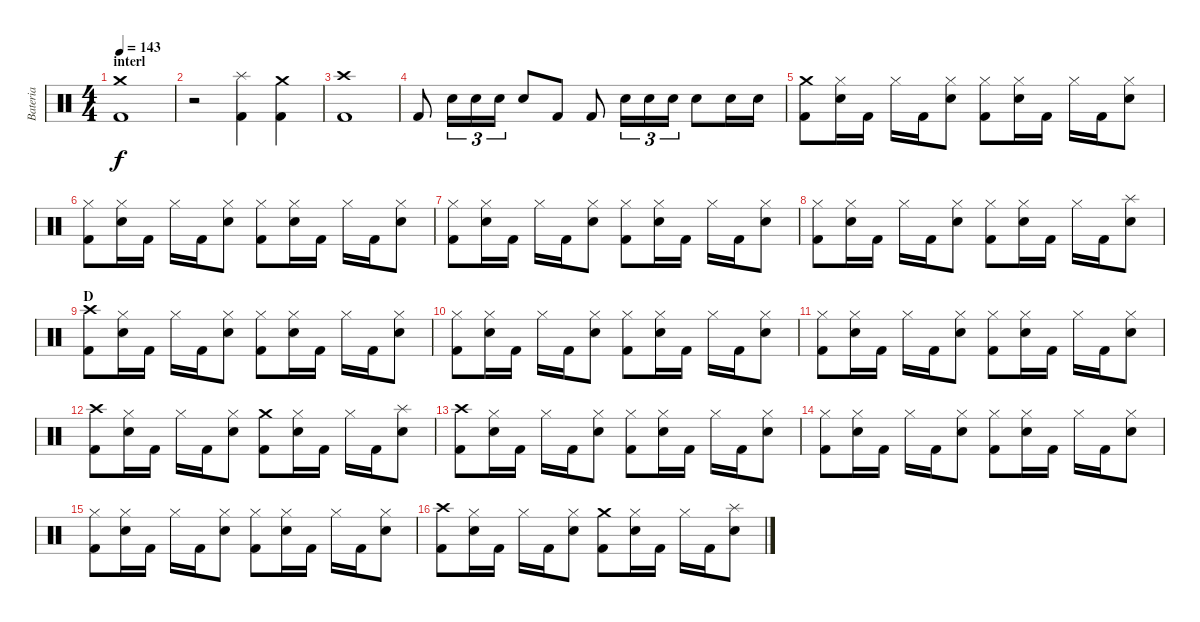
\track ("Bateria" "Bateria") {instrument percussion}
\staff {score}
\articulation defaults
\ts (4 4)
\section ("" "interl")
\tempo 143
\clef neutral
\ks c
("Crash medium (hit)" "Kick (hit) 2").1{dy f} |
r.2 ("Splash (hit)" "Kick (hit) 2").4 ("Crash medium (hit)" "Kick (hit) 2").4 |
("Crash high (hit)" "Kick (hit) 2").1 |
"Kick (hit) 2".8 "Snare (hit) 2".16{tu (3 2)} "Snare (hit) 2".16{tu (3 2)} "Snare (hit) 2".16{tu (3 2)} "Snare (hit) 2".8 "Kick (hit) 2".8 "Kick (hit) 2".8 "Snare (hit) 2".16{tu (3 2)} "Snare (hit) 2".16{tu (3 2)} "Snare (hit) 2".16{tu (3 2)} "Snare (hit) 2".8 "Snare (hit) 2".16 "Snare (hit) 2".16 |
("Crash medium (hit)" "Kick (hit) 2").8 ("Hi-Hat (closed)" "Snare (hit) 2").16 "Kick (hit) 2".16 "Hi-Hat (closed)".16 "Kick (hit) 2".16 ("Hi-Hat (closed)" "Snare (hit) 2").8 ("Hi-Hat (closed)" "Kick (hit) 2").8 ("Hi-Hat (closed)" "Snare (hit) 2").16 "Kick (hit) 2".16 "Hi-Hat (closed)".16 "Kick (hit) 2".16 ("Hi-Hat (closed)" "Snare (hit) 2").8 |
("Hi-Hat (closed)" "Kick (hit) 2").8 ("Hi-Hat (closed)" "Snare (hit) 2").16 "Kick (hit) 2".16 "Hi-Hat (closed)".16 "Kick (hit) 2".16 ("Hi-Hat (closed)" "Snare (hit) 2").8 ("Hi-Hat (closed)" "Kick (hit) 2").8 ("Hi-Hat (closed)" "Snare (hit) 2").16 "Kick (hit) 2".16 "Hi-Hat (closed)".16 "Kick (hit) 2".16 ("Hi-Hat (closed)" "Snare (hit) 2").8 |
("Hi-Hat (closed)" "Kick (hit) 2").8 ("Hi-Hat (closed)" "Snare (hit) 2").16 "Kick (hit) 2".16 "Hi-Hat (closed)".16 "Kick (hit) 2".16 ("Hi-Hat (closed)" "Snare (hit) 2").8 ("Hi-Hat (closed)" "Kick (hit) 2").8 ("Hi-Hat (closed)" "Snare (hit) 2").16 "Kick (hit) 2".16 "Hi-Hat (closed)".16 "Kick (hit) 2".16 ("Hi-Hat (closed)" "Snare (hit) 2").8 |
("Hi-Hat (closed)" "Kick (hit) 2").8 ("Hi-Hat (closed)" "Snare (hit) 2").16 "Kick (hit) 2".16 "Hi-Hat (closed)".16 "Kick (hit) 2".16 ("Hi-Hat (closed)" "Snare (hit) 2").8 ("Hi-Hat (closed)" "Kick (hit) 2").8 ("Hi-Hat (closed)" "Snare (hit) 2").16 "Kick (hit) 2".16 "Hi-Hat (closed)".16 "Kick (hit) 2".16 ("Splash (hit)" "Snare (hit) 2").8 |
\section ("" "D")
("Crash high (hit)" "Kick (hit) 2").8 ("Hi-Hat (closed)" "Snare (hit) 2").16 "Kick (hit) 2".16 "Hi-Hat (closed)".16 "Kick (hit) 2".16 ("Hi-Hat (closed)" "Snare (hit) 2").8 ("Hi-Hat (closed)" "Kick (hit) 2").8 ("Hi-Hat (closed)" "Snare (hit) 2").16 "Kick (hit) 2".16 "Hi-Hat (closed)".16 "Kick (hit) 2".16 ("Hi-Hat (closed)" "Snare (hit) 2").8 |
("Hi-Hat (closed)" "Kick (hit) 2").8 ("Hi-Hat (closed)" "Snare (hit) 2").16 "Kick (hit) 2".16 "Hi-Hat (closed)".16 "Kick (hit) 2".16 ("Hi-Hat (closed)" "Snare (hit) 2").8 ("Hi-Hat (closed)" "Kick (hit) 2").8 ("Hi-Hat (closed)" "Snare (hit) 2").16 "Kick (hit) 2".16 "Hi-Hat (closed)".16 "Kick (hit) 2".16 ("Hi-Hat (closed)" "Snare (hit) 2").8 |
("Hi-Hat (closed)" "Kick (hit) 2").8 ("Hi-Hat (closed)" "Snare (hit) 2").16 "Kick (hit) 2".16 "Hi-Hat (closed)".16 "Kick (hit) 2".16 ("Hi-Hat (closed)" "Snare (hit) 2").8 ("Hi-Hat (closed)" "Kick (hit) 2").8 ("Hi-Hat (closed)" "Snare (hit) 2").16 "Kick (hit) 2".16 "Hi-Hat (closed)".16 "Kick (hit) 2".16 ("Hi-Hat (closed)" "Snare (hit) 2").8 |
("Crash high (hit)" "Kick (hit) 2").8 ("Hi-Hat (closed)" "Snare (hit) 2").16 "Kick (hit) 2".16 "Hi-Hat (closed)".16 "Kick (hit) 2".16 ("Hi-Hat (closed)" "Snare (hit) 2").8 ("Crash medium (hit)" "Kick (hit) 2").8 ("Hi-Hat (closed)" "Snare (hit) 2").16 "Kick (hit) 2".16 "Hi-Hat (closed)".16 "Kick (hit) 2".16 ("Splash (hit)" "Snare (hit) 2").8 |
("Crash high (hit)" "Kick (hit) 2").8 ("Hi-Hat (closed)" "Snare (hit) 2").16 "Kick (hit) 2".16 "Hi-Hat (closed)".16 "Kick (hit) 2".16 ("Hi-Hat (closed)" "Snare (hit) 2").8 ("Hi-Hat (closed)" "Kick (hit) 2").8 ("Hi-Hat (closed)" "Snare (hit) 2").16 "Kick (hit) 2".16 "Hi-Hat (closed)".16 "Kick (hit) 2".16 ("Hi-Hat (closed)" "Snare (hit) 2").8 |
("Hi-Hat (closed)" "Kick (hit) 2").8 ("Hi-Hat (closed)" "Snare (hit) 2").16 "Kick (hit) 2".16 "Hi-Hat (closed)".16 "Kick (hit) 2".16 ("Hi-Hat (closed)" "Snare (hit) 2").8 ("Hi-Hat (closed)" "Kick (hit) 2").8 ("Hi-Hat (closed)" "Snare (hit) 2").16 "Kick (hit) 2".16 "Hi-Hat (closed)".16 "Kick (hit) 2".16 ("Hi-Hat (closed)" "Snare (hit) 2").8 |
("Hi-Hat (closed)" "Kick (hit) 2").8 ("Hi-Hat (closed)" "Snare (hit) 2").16 "Kick (hit) 2".16 "Hi-Hat (closed)".16 "Kick (hit) 2".16 ("Hi-Hat (closed)" "Snare (hit) 2").8 ("Hi-Hat (closed)" "Kick (hit) 2").8 ("Hi-Hat (closed)" "Snare (hit) 2").16 "Kick (hit) 2".16 "Hi-Hat (closed)".16 "Kick (hit) 2".16 ("Hi-Hat (closed)" "Snare (hit) 2").8 |
("Crash high (hit)" "Kick (hit) 2").8 ("Hi-Hat (closed)" "Snare (hit) 2").16 "Kick (hit) 2".16 "Hi-Hat (closed)".16 "Kick (hit) 2".16 ("Hi-Hat (closed)" "Snare (hit) 2").8 ("Crash medium (hit)" "Kick (hit) 2").8 ("Hi-Hat (closed)" "Snare (hit) 2").16 "Kick (hit) 2".16 "Hi-Hat (closed)".16 "Kick (hit) 2".16 ("Splash (hit)" "Snare (hit) 2").8
